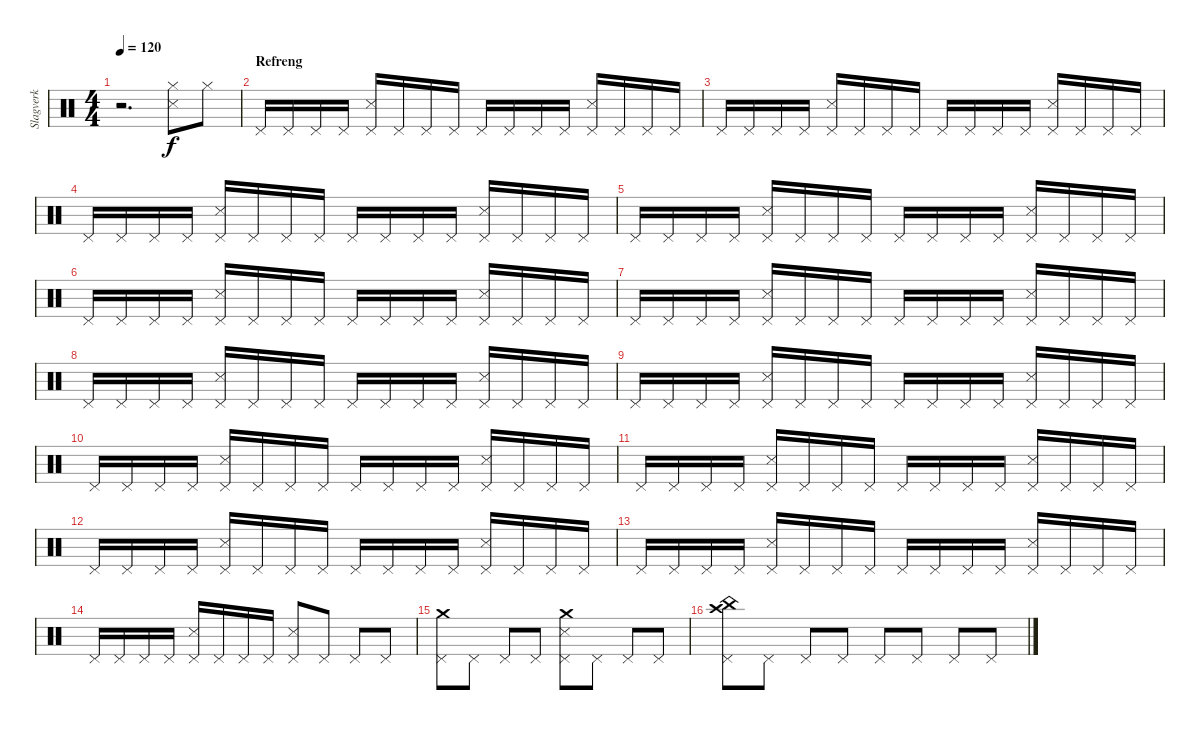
\track ("Slagverk" "Slagverk") {instrument percussion}
\staff {score}
\articulation defaults
\ts (4 4)
\tempo 120
\clef neutral
\ks c
r.2{d dy f} ("Hi-Hat (closed)" "Snare (side stick) 3").8 "Hi-Hat (closed)".8 |
\section ("" "Refreng")
"Pedal Hi-Hat (hit)".16 "Pedal Hi-Hat (hit)".16 "Pedal Hi-Hat (hit)".16 "Pedal Hi-Hat (hit)".16 ("Pedal Hi-Hat (hit)" "Snare (side stick) 3").16 "Pedal Hi-Hat (hit)".16 "Pedal Hi-Hat (hit)".16 "Pedal Hi-Hat (hit)".16 "Pedal Hi-Hat (hit)".16 "Pedal Hi-Hat (hit)".16 "Pedal Hi-Hat (hit)".16 "Pedal Hi-Hat (hit)".16 ("Pedal Hi-Hat (hit)" "Snare (side stick) 3").16 "Pedal Hi-Hat (hit)".16 "Pedal Hi-Hat (hit)".16 "Pedal Hi-Hat (hit)".16 |
"Pedal Hi-Hat (hit)".16 "Pedal Hi-Hat (hit)".16 "Pedal Hi-Hat (hit)".16 "Pedal Hi-Hat (hit)".16 ("Pedal Hi-Hat (hit)" "Snare (side stick) 3").16 "Pedal Hi-Hat (hit)".16 "Pedal Hi-Hat (hit)".16 "Pedal Hi-Hat (hit)".16 "Pedal Hi-Hat (hit)".16 "Pedal Hi-Hat (hit)".16 "Pedal Hi-Hat (hit)".16 "Pedal Hi-Hat (hit)".16 ("Pedal Hi-Hat (hit)" "Snare (side stick) 3").16 "Pedal Hi-Hat (hit)".16 "Pedal Hi-Hat (hit)".16 "Pedal Hi-Hat (hit)".16 |
"Pedal Hi-Hat (hit)".16 "Pedal Hi-Hat (hit)".16 "Pedal Hi-Hat (hit)".16 "Pedal Hi-Hat (hit)".16 ("Pedal Hi-Hat (hit)" "Snare (side stick) 3").16 "Pedal Hi-Hat (hit)".16 "Pedal Hi-Hat (hit)".16 "Pedal Hi-Hat (hit)".16 "Pedal Hi-Hat (hit)".16 "Pedal Hi-Hat (hit)".16 "Pedal Hi-Hat (hit)".16 "Pedal Hi-Hat (hit)".16 ("Pedal Hi-Hat (hit)" "Snare (side stick) 3").16 "Pedal Hi-Hat (hit)".16 "Pedal Hi-Hat (hit)".16 "Pedal Hi-Hat (hit)".16 |
"Pedal Hi-Hat (hit)".16 "Pedal Hi-Hat (hit)".16 "Pedal Hi-Hat (hit)".16 "Pedal Hi-Hat (hit)".16 ("Pedal Hi-Hat (hit)" "Snare (side stick) 3").16 "Pedal Hi-Hat (hit)".16 "Pedal Hi-Hat (hit)".16 "Pedal Hi-Hat (hit)".16 "Pedal Hi-Hat (hit)".16 "Pedal Hi-Hat (hit)".16 "Pedal Hi-Hat (hit)".16 "Pedal Hi-Hat (hit)".16 ("Pedal Hi-Hat (hit)" "Snare (side stick) 3").16 "Pedal Hi-Hat (hit)".16 "Pedal Hi-Hat (hit)".16 "Pedal Hi-Hat (hit)".16 |
"Pedal Hi-Hat (hit)".16 "Pedal Hi-Hat (hit)".16 "Pedal Hi-Hat (hit)".16 "Pedal Hi-Hat (hit)".16 ("Pedal Hi-Hat (hit)" "Snare (side stick) 3").16 "Pedal Hi-Hat (hit)".16 "Pedal Hi-Hat (hit)".16 "Pedal Hi-Hat (hit)".16 "Pedal Hi-Hat (hit)".16 "Pedal Hi-Hat (hit)".16 "Pedal Hi-Hat (hit)".16 "Pedal Hi-Hat (hit)".16 ("Pedal Hi-Hat (hit)" "Snare (side stick) 3").16 "Pedal Hi-Hat (hit)".16 "Pedal Hi-Hat (hit)".16 "Pedal Hi-Hat (hit)".16 |
"Pedal Hi-Hat (hit)".16 "Pedal Hi-Hat (hit)".16 "Pedal Hi-Hat (hit)".16 "Pedal Hi-Hat (hit)".16 ("Pedal Hi-Hat (hit)" "Snare (side stick) 3").16 "Pedal Hi-Hat (hit)".16 "Pedal Hi-Hat (hit)".16 "Pedal Hi-Hat (hit)".16 "Pedal Hi-Hat (hit)".16 "Pedal Hi-Hat (hit)".16 "Pedal Hi-Hat (hit)".16 "Pedal Hi-Hat (hit)".16 ("Pedal Hi-Hat (hit)" "Snare (side stick) 3").16 "Pedal Hi-Hat (hit)".16 "Pedal Hi-Hat (hit)".16 "Pedal Hi-Hat (hit)".16 |
"Pedal Hi-Hat (hit)".16 "Pedal Hi-Hat (hit)".16 "Pedal Hi-Hat (hit)".16 "Pedal Hi-Hat (hit)".16 ("Pedal Hi-Hat (hit)" "Snare (side stick) 3").16 "Pedal Hi-Hat (hit)".16 "Pedal Hi-Hat (hit)".16 "Pedal Hi-Hat (hit)".16 "Pedal Hi-Hat (hit)".16 "Pedal Hi-Hat (hit)".16 "Pedal Hi-Hat (hit)".16 "Pedal Hi-Hat (hit)".16 ("Pedal Hi-Hat (hit)" "Snare (side stick) 3").16 "Pedal Hi-Hat (hit)".16 "Pedal Hi-Hat (hit)".16 "Pedal Hi-Hat (hit)".16 |
"Pedal Hi-Hat (hit)".16 "Pedal Hi-Hat (hit)".16 "Pedal Hi-Hat (hit)".16 "Pedal Hi-Hat (hit)".16 ("Pedal Hi-Hat (hit)" "Snare (side stick) 3").16 "Pedal Hi-Hat (hit)".16 "Pedal Hi-Hat (hit)".16 "Pedal Hi-Hat (hit)".16 "Pedal Hi-Hat (hit)".16 "Pedal Hi-Hat (hit)".16 "Pedal Hi-Hat (hit)".16 "Pedal Hi-Hat (hit)".16 ("Pedal Hi-Hat (hit)" "Snare (side stick) 3").16 "Pedal Hi-Hat (hit)".16 "Pedal Hi-Hat (hit)".16 "Pedal Hi-Hat (hit)".16 |
"Pedal Hi-Hat (hit)".16 "Pedal Hi-Hat (hit)".16 "Pedal Hi-Hat (hit)".16 "Pedal Hi-Hat (hit)".16 ("Pedal Hi-Hat (hit)" "Snare (side stick) 3").16 "Pedal Hi-Hat (hit)".16 "Pedal Hi-Hat (hit)".16 "Pedal Hi-Hat (hit)".16 "Pedal Hi-Hat (hit)".16 "Pedal Hi-Hat (hit)".16 "Pedal Hi-Hat (hit)".16 "Pedal Hi-Hat (hit)".16 ("Pedal Hi-Hat (hit)" "Snare (side stick) 3").16 "Pedal Hi-Hat (hit)".16 "Pedal Hi-Hat (hit)".16 "Pedal Hi-Hat (hit)".16 |
"Pedal Hi-Hat (hit)".16 "Pedal Hi-Hat (hit)".16 "Pedal Hi-Hat (hit)".16 "Pedal Hi-Hat (hit)".16 ("Pedal Hi-Hat (hit)" "Snare (side stick) 3").16 "Pedal Hi-Hat (hit)".16 "Pedal Hi-Hat (hit)".16 "Pedal Hi-Hat (hit)".16 "Pedal Hi-Hat (hit)".16 "Pedal Hi-Hat (hit)".16 "Pedal Hi-Hat (hit)".16 "Pedal Hi-Hat (hit)".16 ("Pedal Hi-Hat (hit)" "Snare (side stick) 3").16 "Pedal Hi-Hat (hit)".16 "Pedal Hi-Hat (hit)".16 "Pedal Hi-Hat (hit)".16 |
"Pedal Hi-Hat (hit)".16 "Pedal Hi-Hat (hit)".16 "Pedal Hi-Hat (hit)".16 "Pedal Hi-Hat (hit)".16 ("Pedal Hi-Hat (hit)" "Snare (side stick) 3").16 "Pedal Hi-Hat (hit)".16 "Pedal Hi-Hat (hit)".16 "Pedal Hi-Hat (hit)".16 "Pedal Hi-Hat (hit)".16 "Pedal Hi-Hat (hit)".16 "Pedal Hi-Hat (hit)".16 "Pedal Hi-Hat (hit)".16 ("Pedal Hi-Hat (hit)" "Snare (side stick) 3").16 "Pedal Hi-Hat (hit)".16 "Pedal Hi-Hat (hit)".16 "Pedal Hi-Hat (hit)".16 |
"Pedal Hi-Hat (hit)".16 "Pedal Hi-Hat (hit)".16 "Pedal Hi-Hat (hit)".16 "Pedal Hi-Hat (hit)".16 ("Pedal Hi-Hat (hit)" "Snare (side stick) 3").16 "Pedal Hi-Hat (hit)".16 "Pedal Hi-Hat (hit)".16 "Pedal Hi-Hat (hit)".16 "Pedal Hi-Hat (hit)".16 "Pedal Hi-Hat (hit)".16 "Pedal Hi-Hat (hit)".16 "Pedal Hi-Hat (hit)".16 ("Pedal Hi-Hat (hit)" "Snare (side stick) 3").16 "Pedal Hi-Hat (hit)".16 "Pedal Hi-Hat (hit)".16 "Pedal Hi-Hat (hit)".16 |
"Pedal Hi-Hat (hit)".16 "Pedal Hi-Hat (hit)".16 "Pedal Hi-Hat (hit)".16 "Pedal Hi-Hat (hit)".16 ("Pedal Hi-Hat (hit)" "Snare (side stick) 3").16 "Pedal Hi-Hat (hit)".16 "Pedal Hi-Hat (hit)".16 "Pedal Hi-Hat (hit)".16 ("Pedal Hi-Hat (hit)" "Snare (side stick) 3").8 "Pedal Hi-Hat (hit)".8 "Pedal Hi-Hat (hit)".8 "Pedal Hi-Hat (hit)".8 |
("Pedal Hi-Hat (hit)" "Crash medium (hit)").8 "Pedal Hi-Hat (hit)".8 "Pedal Hi-Hat (hit)".8 "Pedal Hi-Hat (hit)".8 ("Pedal Hi-Hat (hit)" "Snare (side stick) 3" "Crash medium (hit)").8 "Pedal Hi-Hat (hit)".8 "Pedal Hi-Hat (hit)".8 "Pedal Hi-Hat (hit)".8 |
("Pedal Hi-Hat (hit)" "Crash high (hit)" "China (hit)").8 "Pedal Hi-Hat (hit)".8 "Pedal Hi-Hat (hit)".8 "Pedal Hi-Hat (hit)".8 "Pedal Hi-Hat (hit)".8 "Pedal Hi-Hat (hit)".8 "Pedal Hi-Hat (hit)".8 "Pedal Hi-Hat (hit)".8
